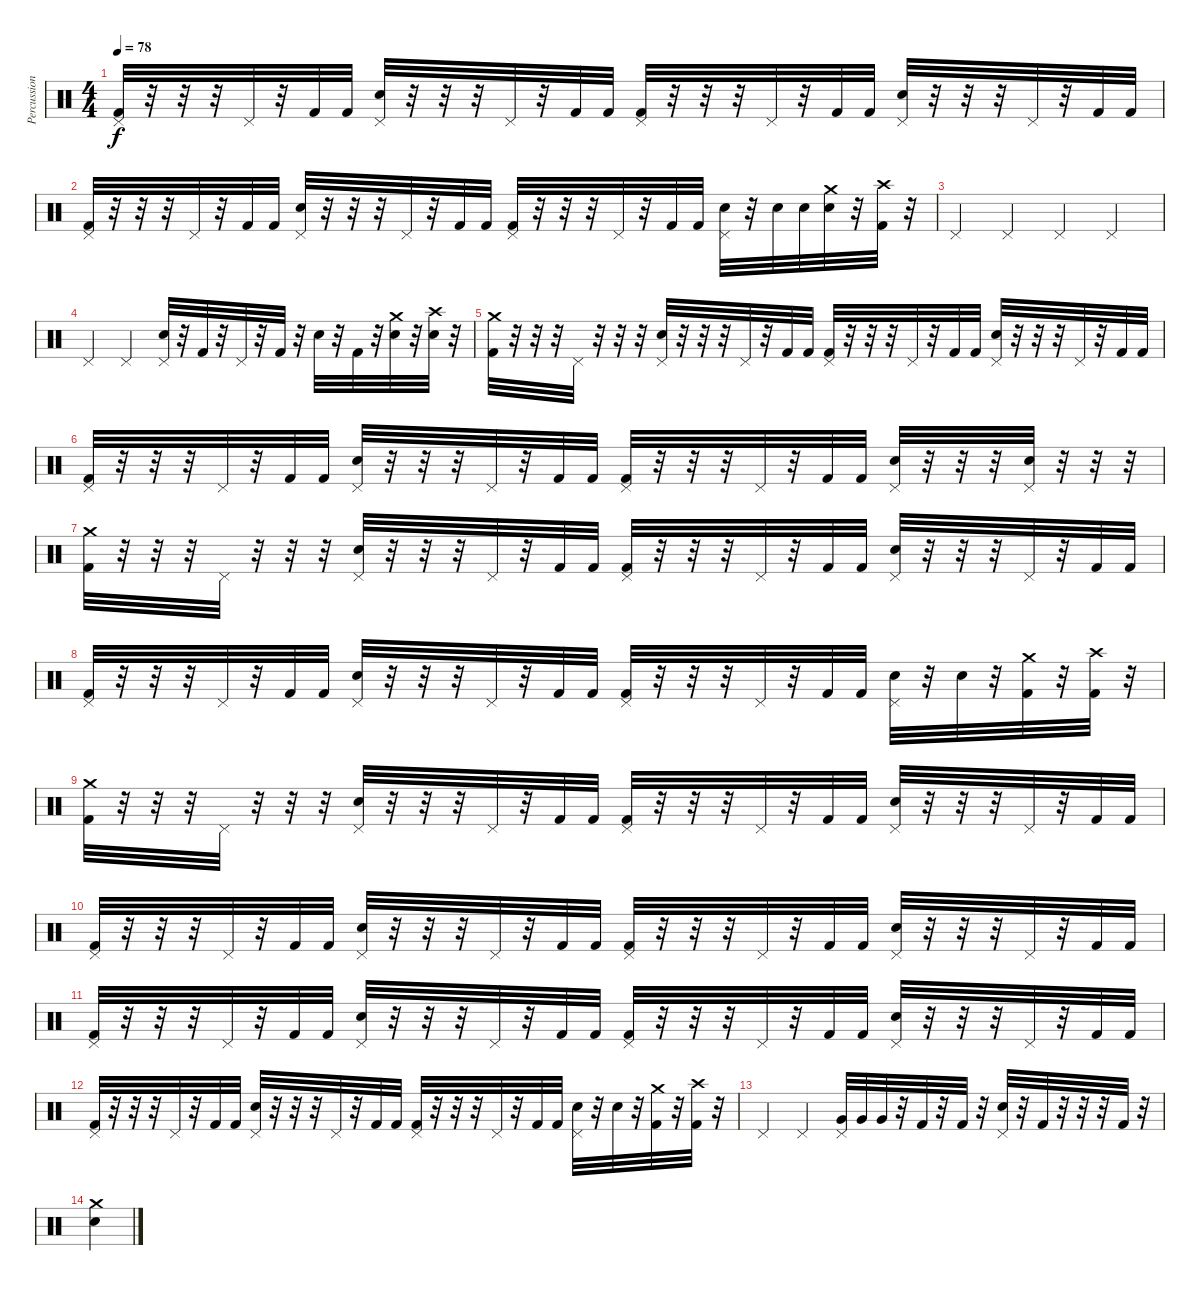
\track ("Percussion" "Percussion") {instrument percussion}
\staff {score}
\articulation defaults
\ts (4 4)
\tempo 78
\clef neutral
\ks c
("Pedal Hi-Hat (hit)" "Kick (hit) 2").32{dy f} r.32 r.32 r.32 "Pedal Hi-Hat (hit)".32 r.32 "Kick (hit) 2".32 "Kick (hit) 2".32 ("Pedal Hi-Hat (hit)" "Electric Snare (hit)").32 r.32 r.32 r.32 "Pedal Hi-Hat (hit)".32 r.32 "Kick (hit) 2".32 "Kick (hit) 2".32 ("Pedal Hi-Hat (hit)" "Kick (hit) 2").32 r.32 r.32 r.32 "Pedal Hi-Hat (hit)".32 r.32 "Kick (hit) 2".32 "Kick (hit) 2".32 ("Pedal Hi-Hat (hit)" "Electric Snare (hit)").32 r.32 r.32 r.32 "Pedal Hi-Hat (hit)".32 r.32 "Kick (hit) 2".32 "Kick (hit) 2".32 |
("Pedal Hi-Hat (hit)" "Kick (hit) 2").32 r.32 r.32 r.32 "Pedal Hi-Hat (hit)".32 r.32 "Kick (hit) 2".32 "Kick (hit) 2".32 ("Pedal Hi-Hat (hit)" "Electric Snare (hit)").32 r.32 r.32 r.32 "Pedal Hi-Hat (hit)".32 r.32 "Kick (hit) 2".32 "Kick (hit) 2".32 ("Pedal Hi-Hat (hit)" "Kick (hit) 2").32 r.32 r.32 r.32 "Pedal Hi-Hat (hit)".32 r.32 "Kick (hit) 2".32 "Kick (hit) 2".32 ("Pedal Hi-Hat (hit)" "Electric Snare (hit)").32 r.32 "Electric Snare (hit)".32 "Electric Snare (hit)".32 ("Crash medium (hit)" "Electric Snare (hit)").32 r.32 ("Crash high (hit)" "Kick (hit) 2").32 r.32 |
"Pedal Hi-Hat (hit)".4 "Pedal Hi-Hat (hit)".4 "Pedal Hi-Hat (hit)".4 "Pedal Hi-Hat (hit)".4 |
"Pedal Hi-Hat (hit)".4 "Pedal Hi-Hat (hit)".4 ("Pedal Hi-Hat (hit)" "Electric Snare (hit)").32 r.32 "Kick (hit) 2".32 r.32 "Pedal Hi-Hat (hit)".32 r.32 "Kick (hit) 2".32 r.32 "Electric Snare (hit)".32 r.32 "Kick (hit) 2".32 r.32 ("Crash medium (hit)" "Electric Snare (hit)").32 r.32 ("Crash high (hit)" "Electric Snare (hit)").32 r.32 |
("Crash medium (hit)" "Kick (hit) 2").32 r.32 r.32 r.32 "Pedal Hi-Hat (hit)".32 r.32 r.32 r.32 ("Pedal Hi-Hat (hit)" "Electric Snare (hit)").32 r.32 r.32 r.32 "Pedal Hi-Hat (hit)".32 r.32 "Kick (hit) 2".32 "Kick (hit) 2".32 ("Pedal Hi-Hat (hit)" "Kick (hit) 2").32 r.32 r.32 r.32 "Pedal Hi-Hat (hit)".32 r.32 "Kick (hit) 2".32 "Kick (hit) 2".32 ("Pedal Hi-Hat (hit)" "Electric Snare (hit)").32 r.32 r.32 r.32 "Pedal Hi-Hat (hit)".32 r.32 "Kick (hit) 2".32 "Kick (hit) 2".32 |
("Pedal Hi-Hat (hit)" "Kick (hit) 2").32 r.32 r.32 r.32 "Pedal Hi-Hat (hit)".32 r.32 "Kick (hit) 2".32 "Kick (hit) 2".32 ("Pedal Hi-Hat (hit)" "Electric Snare (hit)").32 r.32 r.32 r.32 "Pedal Hi-Hat (hit)".32 r.32 "Kick (hit) 2".32 "Kick (hit) 2".32 ("Pedal Hi-Hat (hit)" "Kick (hit) 2").32 r.32 r.32 r.32 "Pedal Hi-Hat (hit)".32 r.32 "Kick (hit) 2".32 "Kick (hit) 2".32 ("Pedal Hi-Hat (hit)" "Electric Snare (hit)").32 r.32 r.32 r.32 ("Pedal Hi-Hat (hit)" "Electric Snare (hit)").32 r.32 r.32 r.32 |
("Crash medium (hit)" "Kick (hit) 2").32 r.32 r.32 r.32 "Pedal Hi-Hat (hit)".32 r.32 r.32 r.32 ("Pedal Hi-Hat (hit)" "Electric Snare (hit)").32 r.32 r.32 r.32 "Pedal Hi-Hat (hit)".32 r.32 "Kick (hit) 2".32 "Kick (hit) 2".32 ("Pedal Hi-Hat (hit)" "Kick (hit) 2").32 r.32 r.32 r.32 "Pedal Hi-Hat (hit)".32 r.32 "Kick (hit) 2".32 "Kick (hit) 2".32 ("Pedal Hi-Hat (hit)" "Electric Snare (hit)").32 r.32 r.32 r.32 "Pedal Hi-Hat (hit)".32 r.32 "Kick (hit) 2".32 "Kick (hit) 2".32 |
("Pedal Hi-Hat (hit)" "Kick (hit) 2").32 r.32 r.32 r.32 "Pedal Hi-Hat (hit)".32 r.32 "Kick (hit) 2".32 "Kick (hit) 2".32 ("Pedal Hi-Hat (hit)" "Electric Snare (hit)").32 r.32 r.32 r.32 "Pedal Hi-Hat (hit)".32 r.32 "Kick (hit) 2".32 "Kick (hit) 2".32 ("Pedal Hi-Hat (hit)" "Kick (hit) 2").32 r.32 r.32 r.32 "Pedal Hi-Hat (hit)".32 r.32 "Kick (hit) 2".32 "Kick (hit) 2".32 ("Pedal Hi-Hat (hit)" "Electric Snare (hit)").32 r.32 "Electric Snare (hit)".32 r.32 ("Crash medium (hit)" "Kick (hit) 2").32 r.32 ("Crash high (hit)" "Kick (hit) 2").32 r.32 |
("Crash medium (hit)" "Kick (hit) 2").32 r.32 r.32 r.32 "Pedal Hi-Hat (hit)".32 r.32 r.32 r.32 ("Pedal Hi-Hat (hit)" "Electric Snare (hit)").32 r.32 r.32 r.32 "Pedal Hi-Hat (hit)".32 r.32 "Kick (hit) 2".32 "Kick (hit) 2".32 ("Pedal Hi-Hat (hit)" "Kick (hit) 2").32 r.32 r.32 r.32 "Pedal Hi-Hat (hit)".32 r.32 "Kick (hit) 2".32 "Kick (hit) 2".32 ("Pedal Hi-Hat (hit)" "Electric Snare (hit)").32 r.32 r.32 r.32 "Pedal Hi-Hat (hit)".32 r.32 "Kick (hit) 2".32 "Kick (hit) 2".32 |
("Pedal Hi-Hat (hit)" "Kick (hit) 2").32 r.32 r.32 r.32 "Pedal Hi-Hat (hit)".32 r.32 "Kick (hit) 2".32 "Kick (hit) 2".32 ("Pedal Hi-Hat (hit)" "Electric Snare (hit)").32 r.32 r.32 r.32 "Pedal Hi-Hat (hit)".32 r.32 "Kick (hit) 2".32 "Kick (hit) 2".32 ("Pedal Hi-Hat (hit)" "Kick (hit) 2").32 r.32 r.32 r.32 "Pedal Hi-Hat (hit)".32 r.32 "Kick (hit) 2".32 "Kick (hit) 2".32 ("Pedal Hi-Hat (hit)" "Electric Snare (hit)").32 r.32 r.32 r.32 "Pedal Hi-Hat (hit)".32 r.32 "Kick (hit) 2".32 "Kick (hit) 2".32 |
("Pedal Hi-Hat (hit)" "Kick (hit) 2").32 r.32 r.32 r.32 "Pedal Hi-Hat (hit)".32 r.32 "Kick (hit) 2".32 "Kick (hit) 2".32 ("Pedal Hi-Hat (hit)" "Electric Snare (hit)").32 r.32 r.32 r.32 "Pedal Hi-Hat (hit)".32 r.32 "Kick (hit) 2".32 "Kick (hit) 2".32 ("Pedal Hi-Hat (hit)" "Kick (hit) 2").32 r.32 r.32 r.32 "Pedal Hi-Hat (hit)".32 r.32 "Kick (hit) 2".32 "Kick (hit) 2".32 ("Pedal Hi-Hat (hit)" "Electric Snare (hit)").32 r.32 r.32 r.32 "Pedal Hi-Hat (hit)".32 r.32 "Kick (hit) 2".32 "Kick (hit) 2".32 |
("Pedal Hi-Hat (hit)" "Kick (hit) 2").32 r.32 r.32 r.32 "Pedal Hi-Hat (hit)".32 r.32 "Kick (hit) 2".32 "Kick (hit) 2".32 ("Pedal Hi-Hat (hit)" "Electric Snare (hit)").32 r.32 r.32 r.32 "Pedal Hi-Hat (hit)".32 r.32 "Kick (hit) 2".32 "Kick (hit) 2".32 ("Pedal Hi-Hat (hit)" "Kick (hit) 2").32 r.32 r.32 r.32 "Pedal Hi-Hat (hit)".32 r.32 "Kick (hit) 2".32 "Kick (hit) 2".32 ("Pedal Hi-Hat (hit)" "Electric Snare (hit)").32 r.32 "Electric Snare (hit)".32 r.32 ("Crash medium (hit)" "Kick (hit) 2").32 r.32 ("Crash high (hit)" "Kick (hit) 2").32 r.32 |
"Pedal Hi-Hat (hit)".4 "Pedal Hi-Hat (hit)".4 ("Pedal Hi-Hat (hit)" "Very Low Tom (hit)").32 "Very Low Tom (hit)".32 "Very Low Tom (hit)".32 r.32 "Kick (hit) 2".32 r.32 "Kick (hit) 2".32 r.32 ("Pedal Hi-Hat (hit)" "Electric Snare (hit)").32 r.32 "Kick (hit) 2".32 r.32 r.32 r.32 "Kick (hit) 2".32 r.32 |
("Crash medium (hit)" "Electric Snare (hit)").4
